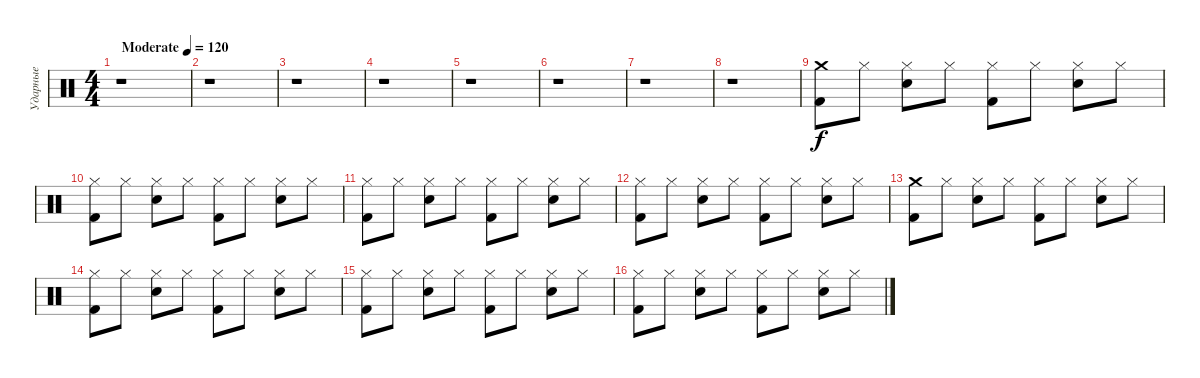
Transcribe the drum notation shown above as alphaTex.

\track ("Ударные" "Ударные") {instrument percussion}
\staff {score}
\articulation defaults
\ts (4 4)
\tempo (120 "Moderate")
\clef neutral
\ks c
r.1{dy f} |
r.1 |
r.1 |
r.1 |
r.1 |
r.1 |
r.1 |
r.1 |
("Crash medium (hit)" "Kick (hit) 2").8 "Hi-Hat (closed)".8 ("Hi-Hat (closed)" "Electric Snare (hit)").8 "Hi-Hat (closed)".8 ("Hi-Hat (closed)" "Kick (hit) 2").8 "Hi-Hat (closed)".8 ("Hi-Hat (closed)" "Electric Snare (hit)").8 "Hi-Hat (closed)".8 |
("Hi-Hat (closed)" "Kick (hit) 2").8 "Hi-Hat (closed)".8 ("Hi-Hat (closed)" "Electric Snare (hit)").8 "Hi-Hat (closed)".8 ("Hi-Hat (closed)" "Kick (hit) 2").8 "Hi-Hat (closed)".8 ("Hi-Hat (closed)" "Electric Snare (hit)").8 "Hi-Hat (closed)".8 |
("Hi-Hat (closed)" "Kick (hit) 2").8 "Hi-Hat (closed)".8 ("Hi-Hat (closed)" "Electric Snare (hit)").8 "Hi-Hat (closed)".8 ("Hi-Hat (closed)" "Kick (hit) 2").8 "Hi-Hat (closed)".8 ("Hi-Hat (closed)" "Electric Snare (hit)").8 "Hi-Hat (closed)".8 |
("Hi-Hat (closed)" "Kick (hit) 2").8 "Hi-Hat (closed)".8 ("Hi-Hat (closed)" "Electric Snare (hit)").8 "Hi-Hat (closed)".8 ("Hi-Hat (closed)" "Kick (hit) 2").8 "Hi-Hat (closed)".8 ("Hi-Hat (closed)" "Electric Snare (hit)").8 "Hi-Hat (closed)".8 |
("Crash medium (hit)" "Kick (hit) 2").8 "Hi-Hat (closed)".8 ("Hi-Hat (closed)" "Electric Snare (hit)").8 "Hi-Hat (closed)".8 ("Hi-Hat (closed)" "Kick (hit) 2").8 "Hi-Hat (closed)".8 ("Hi-Hat (closed)" "Electric Snare (hit)").8 "Hi-Hat (closed)".8 |
("Hi-Hat (closed)" "Kick (hit) 2").8 "Hi-Hat (closed)".8 ("Hi-Hat (closed)" "Electric Snare (hit)").8 "Hi-Hat (closed)".8 ("Hi-Hat (closed)" "Kick (hit) 2").8 "Hi-Hat (closed)".8 ("Hi-Hat (closed)" "Electric Snare (hit)").8 "Hi-Hat (closed)".8 |
("Hi-Hat (closed)" "Kick (hit) 2").8 "Hi-Hat (closed)".8 ("Hi-Hat (closed)" "Electric Snare (hit)").8 "Hi-Hat (closed)".8 ("Hi-Hat (closed)" "Kick (hit) 2").8 "Hi-Hat (closed)".8 ("Hi-Hat (closed)" "Electric Snare (hit)").8 "Hi-Hat (closed)".8 |
("Hi-Hat (closed)" "Kick (hit) 2").8 "Hi-Hat (closed)".8 ("Hi-Hat (closed)" "Electric Snare (hit)").8 "Hi-Hat (closed)".8 ("Hi-Hat (closed)" "Kick (hit) 2").8 "Hi-Hat (closed)".8 ("Hi-Hat (closed)" "Electric Snare (hit)").8 "Hi-Hat (closed)".8
